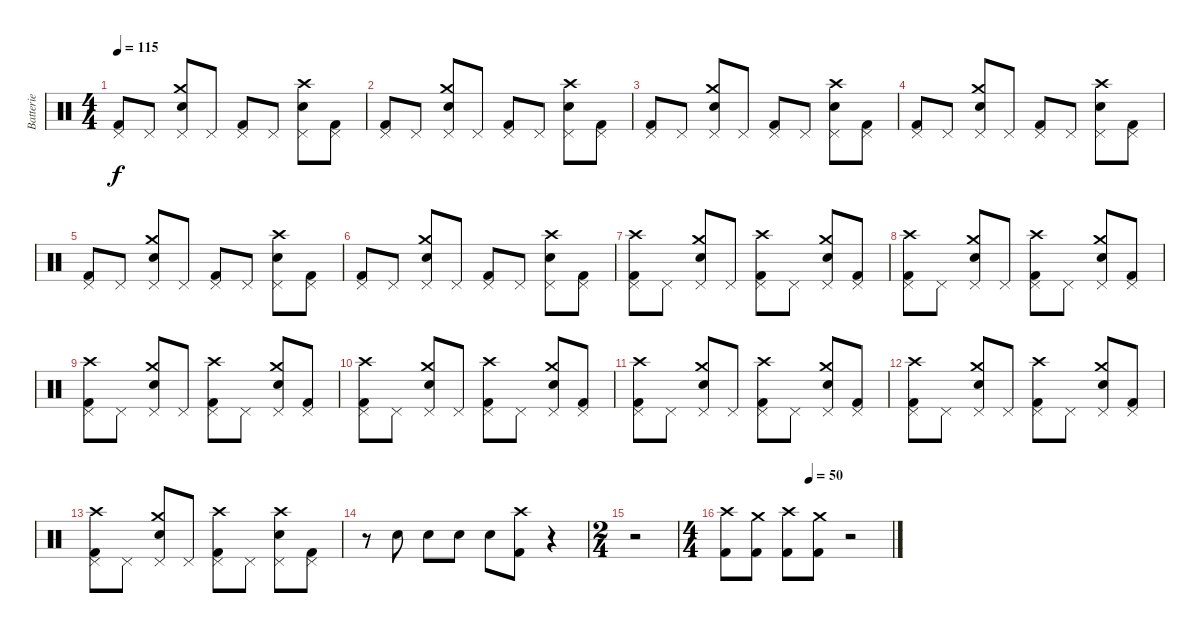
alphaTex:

\track ("Batterie" "Batterie") {instrument percussion}
\staff {score}
\articulation defaults
\ts (4 4)
\tempo 115
\clef neutral
\ks c
("Pedal Hi-Hat (hit)" "Kick (hit) 2").8{dy f} "Pedal Hi-Hat (hit)".8 ("Pedal Hi-Hat (hit)" "Crash medium (hit)" "Snare (hit) 2").8 "Pedal Hi-Hat (hit)".8 ("Pedal Hi-Hat (hit)" "Kick (hit) 2").8 "Pedal Hi-Hat (hit)".8 ("Pedal Hi-Hat (hit)" "Crash high (hit)" "Snare (hit) 2").8 ("Pedal Hi-Hat (hit)" "Kick (hit) 2").8 |
("Pedal Hi-Hat (hit)" "Kick (hit) 2").8 "Pedal Hi-Hat (hit)".8 ("Pedal Hi-Hat (hit)" "Crash medium (hit)" "Snare (hit) 2").8 "Pedal Hi-Hat (hit)".8 ("Pedal Hi-Hat (hit)" "Kick (hit) 2").8 "Pedal Hi-Hat (hit)".8 ("Pedal Hi-Hat (hit)" "Crash high (hit)" "Snare (hit) 2").8 ("Pedal Hi-Hat (hit)" "Kick (hit) 2").8 |
("Pedal Hi-Hat (hit)" "Kick (hit) 2").8 "Pedal Hi-Hat (hit)".8 ("Pedal Hi-Hat (hit)" "Crash medium (hit)" "Snare (hit) 2").8 "Pedal Hi-Hat (hit)".8 ("Pedal Hi-Hat (hit)" "Kick (hit) 2").8 "Pedal Hi-Hat (hit)".8 ("Pedal Hi-Hat (hit)" "Crash high (hit)" "Snare (hit) 2").8 ("Pedal Hi-Hat (hit)" "Kick (hit) 2").8 |
("Pedal Hi-Hat (hit)" "Kick (hit) 2").8 "Pedal Hi-Hat (hit)".8 ("Pedal Hi-Hat (hit)" "Crash medium (hit)" "Snare (hit) 2").8 "Pedal Hi-Hat (hit)".8 ("Pedal Hi-Hat (hit)" "Kick (hit) 2").8 "Pedal Hi-Hat (hit)".8 ("Pedal Hi-Hat (hit)" "Crash high (hit)" "Snare (hit) 2").8 ("Pedal Hi-Hat (hit)" "Kick (hit) 2").8 |
("Pedal Hi-Hat (hit)" "Kick (hit) 2").8 "Pedal Hi-Hat (hit)".8 ("Pedal Hi-Hat (hit)" "Crash medium (hit)" "Snare (hit) 2").8 "Pedal Hi-Hat (hit)".8 ("Pedal Hi-Hat (hit)" "Kick (hit) 2").8 "Pedal Hi-Hat (hit)".8 ("Pedal Hi-Hat (hit)" "Crash high (hit)" "Snare (hit) 2").8 ("Pedal Hi-Hat (hit)" "Kick (hit) 2").8 |
("Pedal Hi-Hat (hit)" "Kick (hit) 2").8 "Pedal Hi-Hat (hit)".8 ("Pedal Hi-Hat (hit)" "Crash medium (hit)" "Snare (hit) 2").8 "Pedal Hi-Hat (hit)".8 ("Pedal Hi-Hat (hit)" "Kick (hit) 2").8 "Pedal Hi-Hat (hit)".8 ("Pedal Hi-Hat (hit)" "Crash high (hit)" "Snare (hit) 2").8 ("Pedal Hi-Hat (hit)" "Kick (hit) 2").8 |
("Pedal Hi-Hat (hit)" "Crash high (hit)" "Kick (hit) 2").8 "Pedal Hi-Hat (hit)".8 ("Pedal Hi-Hat (hit)" "Crash medium (hit)" "Snare (hit) 2").8 "Pedal Hi-Hat (hit)".8 ("Pedal Hi-Hat (hit)" "Crash high (hit)" "Kick (hit) 2").8 "Pedal Hi-Hat (hit)".8 ("Pedal Hi-Hat (hit)" "Crash medium (hit)" "Snare (hit) 2").8 ("Pedal Hi-Hat (hit)" "Kick (hit) 2").8 |
("Pedal Hi-Hat (hit)" "Crash high (hit)" "Kick (hit) 2").8 "Pedal Hi-Hat (hit)".8 ("Pedal Hi-Hat (hit)" "Crash medium (hit)" "Snare (hit) 2").8 "Pedal Hi-Hat (hit)".8 ("Pedal Hi-Hat (hit)" "Crash high (hit)" "Kick (hit) 2").8 "Pedal Hi-Hat (hit)".8 ("Pedal Hi-Hat (hit)" "Crash medium (hit)" "Snare (hit) 2").8 ("Pedal Hi-Hat (hit)" "Kick (hit) 2").8 |
("Pedal Hi-Hat (hit)" "Crash high (hit)" "Kick (hit) 2").8 "Pedal Hi-Hat (hit)".8 ("Pedal Hi-Hat (hit)" "Crash medium (hit)" "Snare (hit) 2").8 "Pedal Hi-Hat (hit)".8 ("Pedal Hi-Hat (hit)" "Crash high (hit)" "Kick (hit) 2").8 "Pedal Hi-Hat (hit)".8 ("Pedal Hi-Hat (hit)" "Crash medium (hit)" "Snare (hit) 2").8 ("Pedal Hi-Hat (hit)" "Kick (hit) 2").8 |
("Pedal Hi-Hat (hit)" "Crash high (hit)" "Kick (hit) 2").8 "Pedal Hi-Hat (hit)".8 ("Pedal Hi-Hat (hit)" "Crash medium (hit)" "Snare (hit) 2").8 "Pedal Hi-Hat (hit)".8 ("Pedal Hi-Hat (hit)" "Crash high (hit)" "Kick (hit) 2").8 "Pedal Hi-Hat (hit)".8 ("Pedal Hi-Hat (hit)" "Crash medium (hit)" "Snare (hit) 2").8 ("Pedal Hi-Hat (hit)" "Kick (hit) 2").8 |
("Pedal Hi-Hat (hit)" "Crash high (hit)" "Kick (hit) 2").8 "Pedal Hi-Hat (hit)".8 ("Pedal Hi-Hat (hit)" "Crash medium (hit)" "Snare (hit) 2").8 "Pedal Hi-Hat (hit)".8 ("Pedal Hi-Hat (hit)" "Crash high (hit)" "Kick (hit) 2").8 "Pedal Hi-Hat (hit)".8 ("Pedal Hi-Hat (hit)" "Crash medium (hit)" "Snare (hit) 2").8 ("Pedal Hi-Hat (hit)" "Kick (hit) 2").8 |
("Pedal Hi-Hat (hit)" "Crash high (hit)" "Kick (hit) 2").8 "Pedal Hi-Hat (hit)".8 ("Pedal Hi-Hat (hit)" "Crash medium (hit)" "Snare (hit) 2").8 "Pedal Hi-Hat (hit)".8 ("Pedal Hi-Hat (hit)" "Crash high (hit)" "Kick (hit) 2").8 "Pedal Hi-Hat (hit)".8 ("Pedal Hi-Hat (hit)" "Crash medium (hit)" "Snare (hit) 2").8 ("Pedal Hi-Hat (hit)" "Kick (hit) 2").8 |
("Pedal Hi-Hat (hit)" "Crash high (hit)" "Kick (hit) 2").8 "Pedal Hi-Hat (hit)".8 ("Pedal Hi-Hat (hit)" "Crash medium (hit)" "Snare (hit) 2").8 "Pedal Hi-Hat (hit)".8 ("Pedal Hi-Hat (hit)" "Crash high (hit)" "Kick (hit) 2").8 "Pedal Hi-Hat (hit)".8 ("Pedal Hi-Hat (hit)" "Crash high (hit)" "Snare (hit) 2").8 ("Pedal Hi-Hat (hit)" "Kick (hit) 2").8 |
r.8 "Snare (hit) 2".8 "Snare (hit) 2".8 "Snare (hit) 2".8 "Snare (hit) 2".8 ("Crash high (hit)" "Kick (hit) 2").8 r.4 |
\ts (2 4)
r.2 |
\ts (4 4)
\tempo (50 0.5)
("Crash high (hit)" "Kick (hit) 2").8 ("Crash medium (hit)" "Kick (hit) 2").8 ("Crash high (hit)" "Kick (hit) 2").8 ("Crash medium (hit)" "Kick (hit) 2").8 r.2
